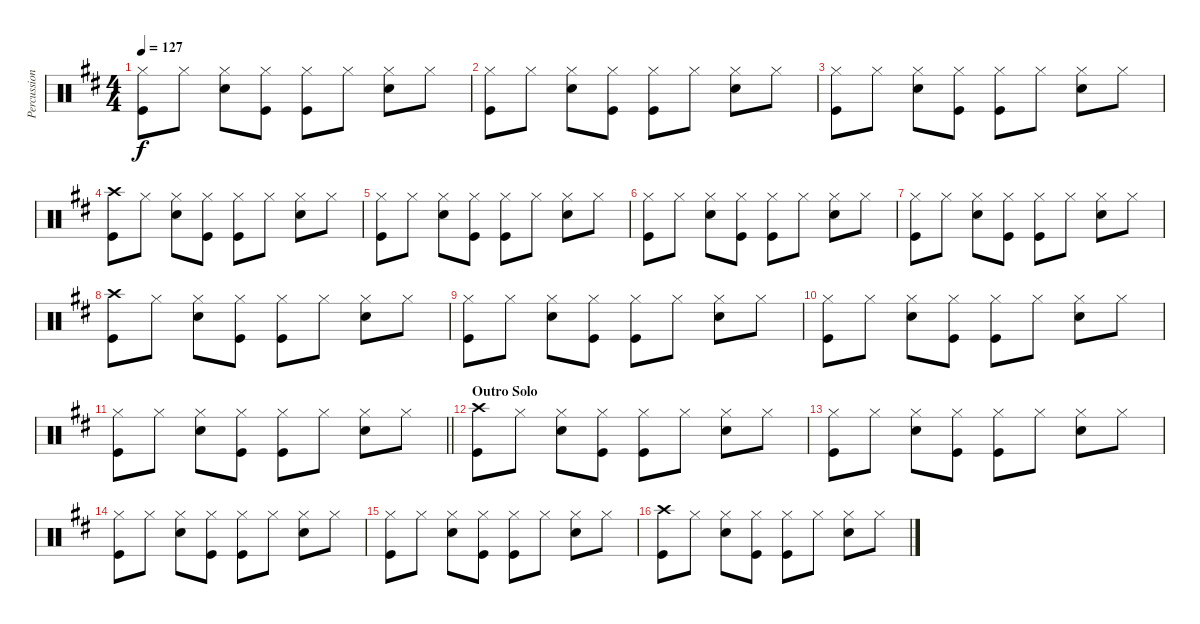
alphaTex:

\track ("Percussion" "Percussion") {instrument percussion}
\staff {score}
\articulation defaults
\ts (4 4)
\tempo 127
\clef neutral
\ks d
("Hi-Hat (closed)" "Kick (hit)").8{dy f} "Hi-Hat (closed)".8 ("Hi-Hat (closed)" "Snare (hit) 2").8 ("Hi-Hat (closed)" "Kick (hit)").8 ("Hi-Hat (closed)" "Kick (hit)").8 "Hi-Hat (closed)".8 ("Hi-Hat (closed)" "Snare (hit) 2").8 "Hi-Hat (closed)".8 |
("Hi-Hat (closed)" "Kick (hit)").8 "Hi-Hat (closed)".8 ("Hi-Hat (closed)" "Snare (hit) 2").8 ("Hi-Hat (closed)" "Kick (hit)").8 ("Hi-Hat (closed)" "Kick (hit)").8 "Hi-Hat (closed)".8 ("Hi-Hat (closed)" "Snare (hit) 2").8 "Hi-Hat (closed)".8 |
("Hi-Hat (closed)" "Kick (hit)").8 "Hi-Hat (closed)".8 ("Hi-Hat (closed)" "Snare (hit) 2").8 ("Hi-Hat (closed)" "Kick (hit)").8 ("Hi-Hat (closed)" "Kick (hit)").8 "Hi-Hat (closed)".8 ("Hi-Hat (closed)" "Snare (hit) 2").8 "Hi-Hat (closed)".8 |
("Crash high (hit)" "Kick (hit)").8 "Hi-Hat (closed)".8 ("Hi-Hat (closed)" "Snare (hit) 2").8 ("Hi-Hat (closed)" "Kick (hit)").8 ("Hi-Hat (closed)" "Kick (hit)").8 "Hi-Hat (closed)".8 ("Hi-Hat (closed)" "Snare (hit) 2").8 "Hi-Hat (closed)".8 |
("Hi-Hat (closed)" "Kick (hit)").8 "Hi-Hat (closed)".8 ("Hi-Hat (closed)" "Snare (hit) 2").8 ("Hi-Hat (closed)" "Kick (hit)").8 ("Hi-Hat (closed)" "Kick (hit)").8 "Hi-Hat (closed)".8 ("Hi-Hat (closed)" "Snare (hit) 2").8 "Hi-Hat (closed)".8 |
("Hi-Hat (closed)" "Kick (hit)").8 "Hi-Hat (closed)".8 ("Hi-Hat (closed)" "Snare (hit) 2").8 ("Hi-Hat (closed)" "Kick (hit)").8 ("Hi-Hat (closed)" "Kick (hit)").8 "Hi-Hat (closed)".8 ("Hi-Hat (closed)" "Snare (hit) 2").8 "Hi-Hat (closed)".8 |
("Hi-Hat (closed)" "Kick (hit)").8 "Hi-Hat (closed)".8 ("Hi-Hat (closed)" "Snare (hit) 2").8 ("Hi-Hat (closed)" "Kick (hit)").8 ("Hi-Hat (closed)" "Kick (hit)").8 "Hi-Hat (closed)".8 ("Hi-Hat (closed)" "Snare (hit) 2").8 "Hi-Hat (closed)".8 |
("Crash high (hit)" "Kick (hit)").8 "Hi-Hat (closed)".8 ("Hi-Hat (closed)" "Snare (hit) 2").8 ("Hi-Hat (closed)" "Kick (hit)").8 ("Hi-Hat (closed)" "Kick (hit)").8 "Hi-Hat (closed)".8 ("Hi-Hat (closed)" "Snare (hit) 2").8 "Hi-Hat (closed)".8 |
("Hi-Hat (closed)" "Kick (hit)").8 "Hi-Hat (closed)".8 ("Hi-Hat (closed)" "Snare (hit) 2").8 ("Hi-Hat (closed)" "Kick (hit)").8 ("Hi-Hat (closed)" "Kick (hit)").8 "Hi-Hat (closed)".8 ("Hi-Hat (closed)" "Snare (hit) 2").8 "Hi-Hat (closed)".8 |
("Hi-Hat (closed)" "Kick (hit)").8 "Hi-Hat (closed)".8 ("Hi-Hat (closed)" "Snare (hit) 2").8 ("Hi-Hat (closed)" "Kick (hit)").8 ("Hi-Hat (closed)" "Kick (hit)").8 "Hi-Hat (closed)".8 ("Hi-Hat (closed)" "Snare (hit) 2").8 "Hi-Hat (closed)".8 |
\barLineRight lightlight
("Hi-Hat (closed)" "Kick (hit)").8 "Hi-Hat (closed)".8 ("Hi-Hat (closed)" "Snare (hit) 2").8 ("Hi-Hat (closed)" "Kick (hit)").8 ("Hi-Hat (closed)" "Kick (hit)").8 "Hi-Hat (closed)".8 ("Hi-Hat (closed)" "Snare (hit) 2").8 "Hi-Hat (closed)".8 |
\section ("" "Outro Solo")
("Crash high (hit)" "Kick (hit)").8 "Hi-Hat (closed)".8 ("Hi-Hat (closed)" "Snare (hit) 2").8 ("Hi-Hat (closed)" "Kick (hit)").8 ("Hi-Hat (closed)" "Kick (hit)").8 "Hi-Hat (closed)".8 ("Hi-Hat (closed)" "Snare (hit) 2").8 "Hi-Hat (closed)".8 |
("Hi-Hat (closed)" "Kick (hit)").8 "Hi-Hat (closed)".8 ("Hi-Hat (closed)" "Snare (hit) 2").8 ("Hi-Hat (closed)" "Kick (hit)").8 ("Hi-Hat (closed)" "Kick (hit)").8 "Hi-Hat (closed)".8 ("Hi-Hat (closed)" "Snare (hit) 2").8 "Hi-Hat (closed)".8 |
("Hi-Hat (closed)" "Kick (hit)").8 "Hi-Hat (closed)".8 ("Hi-Hat (closed)" "Snare (hit) 2").8 ("Hi-Hat (closed)" "Kick (hit)").8 ("Hi-Hat (closed)" "Kick (hit)").8 "Hi-Hat (closed)".8 ("Hi-Hat (closed)" "Snare (hit) 2").8 "Hi-Hat (closed)".8 |
("Hi-Hat (closed)" "Kick (hit)").8 "Hi-Hat (closed)".8 ("Hi-Hat (closed)" "Snare (hit) 2").8 ("Hi-Hat (closed)" "Kick (hit)").8 ("Hi-Hat (closed)" "Kick (hit)").8 "Hi-Hat (closed)".8 ("Hi-Hat (closed)" "Snare (hit) 2").8 "Hi-Hat (closed)".8 |
("Crash high (hit)" "Kick (hit)").8 "Hi-Hat (closed)".8 ("Hi-Hat (closed)" "Snare (hit) 2").8 ("Hi-Hat (closed)" "Kick (hit)").8 ("Hi-Hat (closed)" "Kick (hit)").8 "Hi-Hat (closed)".8 ("Hi-Hat (closed)" "Snare (hit) 2").8 "Hi-Hat (closed)".8
